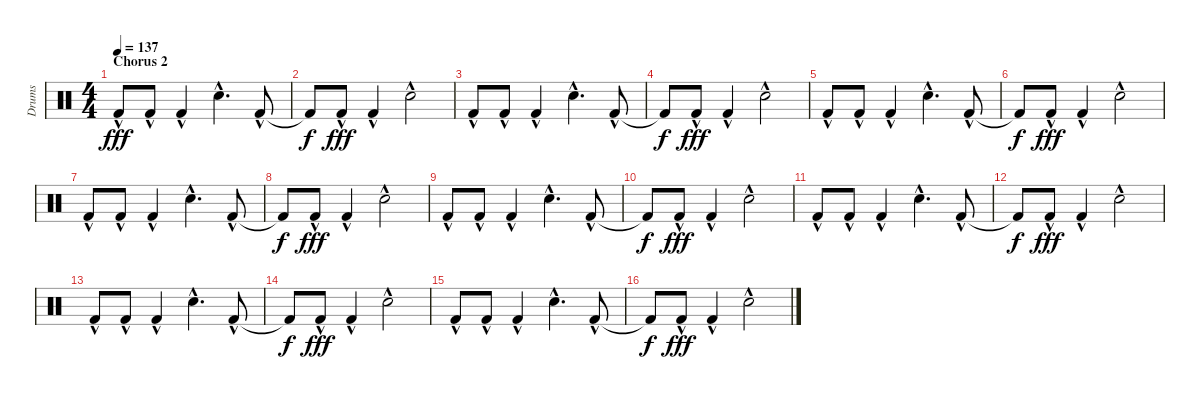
\track ("Drums" "Drums") {instrument percussion}
\staff {score}
\articulation defaults
\ts (4 4)
\section ("" "Chorus 2")
\tempo 137
\clef neutral
\ks c "Kick (hit) 2"{hac}.8{dy fff} "Kick (hit) 2"{hac}.8 "Kick (hit) 2"{hac}.4 "Snare (hit) 2"{hac}.4{d} "Kick (hit) 2"{hac}.8
|
"Kick (hit) 2"{t}.8{dy f} "Kick (hit) 2"{hac}.8{dy fff} "Kick (hit) 2"{hac}.4 "Snare (hit) 2"{hac}.2 |
"Kick (hit) 2"{hac}.8 "Kick (hit) 2"{hac}.8 "Kick (hit) 2"{hac}.4 "Snare (hit) 2"{hac}.4{d} "Kick (hit) 2"{hac}.8 |
"Kick (hit) 2"{t}.8{dy f} "Kick (hit) 2"{hac}.8{dy fff} "Kick (hit) 2"{hac}.4 "Snare (hit) 2"{hac}.2 |
"Kick (hit) 2"{hac}.8 "Kick (hit) 2"{hac}.8 "Kick (hit) 2"{hac}.4 "Snare (hit) 2"{hac}.4{d} "Kick (hit) 2"{hac}.8 |
"Kick (hit) 2"{t}.8{dy f} "Kick (hit) 2"{hac}.8{dy fff} "Kick (hit) 2"{hac}.4 "Snare (hit) 2"{hac}.2 |
"Kick (hit) 2"{hac}.8 "Kick (hit) 2"{hac}.8 "Kick (hit) 2"{hac}.4 "Snare (hit) 2"{hac}.4{d} "Kick (hit) 2"{hac}.8 |
"Kick (hit) 2"{t}.8{dy f} "Kick (hit) 2"{hac}.8{dy fff} "Kick (hit) 2"{hac}.4 "Snare (hit) 2"{hac}.2 |
"Kick (hit) 2"{hac}.8 "Kick (hit) 2"{hac}.8 "Kick (hit) 2"{hac}.4 "Snare (hit) 2"{hac}.4{d} "Kick (hit) 2"{hac}.8 |
"Kick (hit) 2"{t}.8{dy f} "Kick (hit) 2"{hac}.8{dy fff} "Kick (hit) 2"{hac}.4 "Snare (hit) 2"{hac}.2 |
"Kick (hit) 2"{hac}.8 "Kick (hit) 2"{hac}.8 "Kick (hit) 2"{hac}.4 "Snare (hit) 2"{hac}.4{d} "Kick (hit) 2"{hac}.8 |
"Kick (hit) 2"{t}.8{dy f} "Kick (hit) 2"{hac}.8{dy fff} "Kick (hit) 2"{hac}.4 "Snare (hit) 2"{hac}.2 |
"Kick (hit) 2"{hac}.8 "Kick (hit) 2"{hac}.8 "Kick (hit) 2"{hac}.4 "Snare (hit) 2"{hac}.4{d} "Kick (hit) 2"{hac}.8 |
"Kick (hit) 2"{t}.8{dy f} "Kick (hit) 2"{hac}.8{dy fff} "Kick (hit) 2"{hac}.4 "Snare (hit) 2"{hac}.2 |
"Kick (hit) 2"{hac}.8 "Kick (hit) 2"{hac}.8 "Kick (hit) 2"{hac}.4 "Snare (hit) 2"{hac}.4{d} "Kick (hit) 2"{hac}.8 |
"Kick (hit) 2"{t}.8{dy f} "Kick (hit) 2"{hac}.8{dy fff} "Kick (hit) 2"{hac}.4 "Snare (hit) 2"{hac}.2
